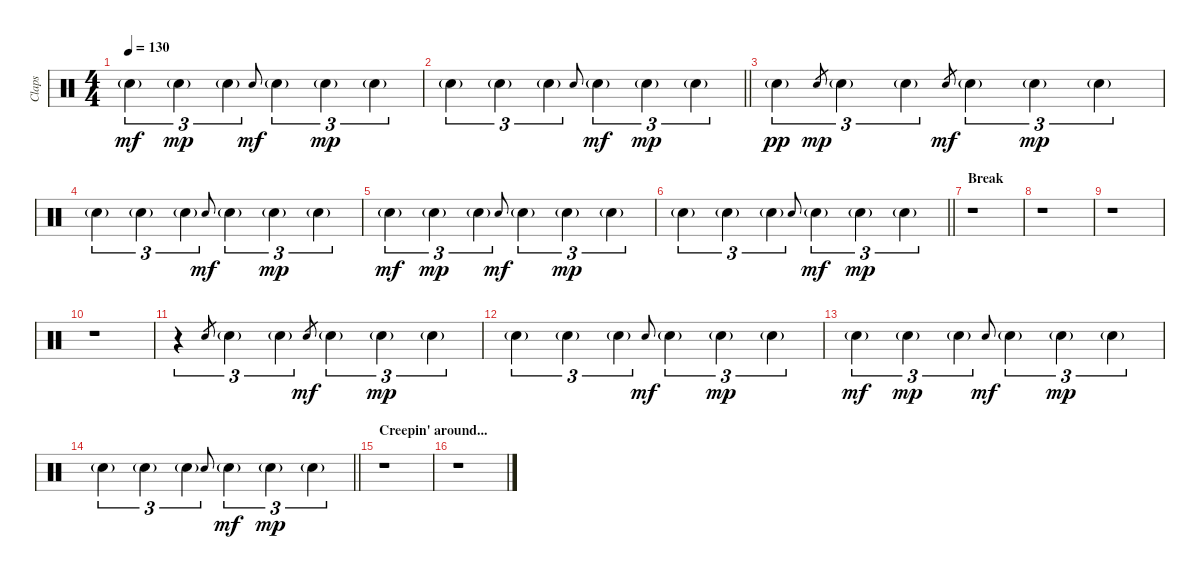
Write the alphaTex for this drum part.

\track ("Claps" "Claps") {instrument percussion}
\staff {score}
\articulation defaults
\ts (4 4)
\tempo 130
\clef neutral
\ks c "Hand Clap (hit)"{g}.4{tu (3 2) dy mf} "Hand Clap (hit)"{g}.4{tu (3 2) dy mp} "Hand Clap (hit)"{g}.4{tu (3 2)} "Hand Clap (hit)".8{gr onbeat dy mf} "Hand Clap (hit)"{g}.4{tu (3 2)} "Hand Clap (hit)"{g}.4{tu (3 2) dy mp} "Hand Clap (hit)"{g}.4{tu (3 2)}
|
\barLineRight lightlight "Hand Clap (hit)"{g}.4{tu (3 2)} "Hand Clap (hit)"{g}.4{tu (3 2)} "Hand Clap (hit)"{g}.4{tu (3 2)} "Hand Clap (hit)".8{gr onbeat} "Hand Clap (hit)"{g}.4{tu (3 2) dy mf} "Hand Clap (hit)"{g}.4{tu (3 2) dy mp} "Hand Clap (hit)"{g}.4{tu (3 2)}
|
"Hand Clap (hit)"{g}.4{tu (3 2) dy pp} "Hand Clap (hit)".8{gr dy mp} "Hand Clap (hit)"{g}.4{tu (3 2)} "Hand Clap (hit)"{g}.4{tu (3 2)} "Hand Clap (hit)".8{gr dy mf} "Hand Clap (hit)"{g}.4{tu (3 2)} "Hand Clap (hit)"{g}.4{tu (3 2) dy mp} "Hand Clap (hit)"{g}.4{tu (3 2)} |
"Hand Clap (hit)"{g}.4{tu (3 2)} "Hand Clap (hit)"{g}.4{tu (3 2)} "Hand Clap (hit)"{g}.4{tu (3 2)} "Hand Clap (hit)".8{gr onbeat dy mf} "Hand Clap (hit)"{g}.4{tu (3 2)} "Hand Clap (hit)"{g}.4{tu (3 2) dy mp} "Hand Clap (hit)"{g}.4{tu (3 2)} |
"Hand Clap (hit)"{g}.4{tu (3 2) dy mf} "Hand Clap (hit)"{g}.4{tu (3 2) dy mp} "Hand Clap (hit)"{g}.4{tu (3 2)} "Hand Clap (hit)".8{gr onbeat dy mf} "Hand Clap (hit)"{g}.4{tu (3 2)} "Hand Clap (hit)"{g}.4{tu (3 2) dy mp} "Hand Clap (hit)"{g}.4{tu (3 2)} |
\barLineRight lightlight "Hand Clap (hit)"{g}.4{tu (3 2)} "Hand Clap (hit)"{g}.4{tu (3 2)} "Hand Clap (hit)"{g}.4{tu (3 2)} "Hand Clap (hit)".8{gr onbeat} "Hand Clap (hit)"{g}.4{tu (3 2) dy mf} "Hand Clap (hit)"{g}.4{tu (3 2) dy mp} "Hand Clap (hit)"{g}.4{tu (3 2)}
|
\section ("" "Break")
r.1 |
r.1 |
r.1 |
r.1 |
r.4{tu (3 2)} "Hand Clap (hit)".8{gr} "Hand Clap (hit)"{g}.4{tu (3 2)} "Hand Clap (hit)"{g}.4{tu (3 2)} "Hand Clap (hit)".8{gr dy mf} "Hand Clap (hit)"{g}.4{tu (3 2)} "Hand Clap (hit)"{g}.4{tu (3 2) dy mp} "Hand Clap (hit)"{g}.4{tu (3 2)} |
"Hand Clap (hit)"{g}.4{tu (3 2)} "Hand Clap (hit)"{g}.4{tu (3 2)} "Hand Clap (hit)"{g}.4{tu (3 2)} "Hand Clap (hit)".8{gr onbeat dy mf} "Hand Clap (hit)"{g}.4{tu (3 2)} "Hand Clap (hit)"{g}.4{tu (3 2) dy mp} "Hand Clap (hit)"{g}.4{tu (3 2)} |
"Hand Clap (hit)"{g}.4{tu (3 2) dy mf} "Hand Clap (hit)"{g}.4{tu (3 2) dy mp} "Hand Clap (hit)"{g}.4{tu (3 2)} "Hand Clap (hit)".8{gr onbeat dy mf} "Hand Clap (hit)"{g}.4{tu (3 2)} "Hand Clap (hit)"{g}.4{tu (3 2) dy mp} "Hand Clap (hit)"{g}.4{tu (3 2)} |
\barLineRight lightlight "Hand Clap (hit)"{g}.4{tu (3 2)} "Hand Clap (hit)"{g}.4{tu (3 2)} "Hand Clap (hit)"{g}.4{tu (3 2)} "Hand Clap (hit)".8{gr onbeat} "Hand Clap (hit)"{g}.4{tu (3 2) dy mf} "Hand Clap (hit)"{g}.4{tu (3 2) dy mp} "Hand Clap (hit)"{g}.4{tu (3 2)}
|
\section ("" "Creepin' around...")
r.1 |
r.1
